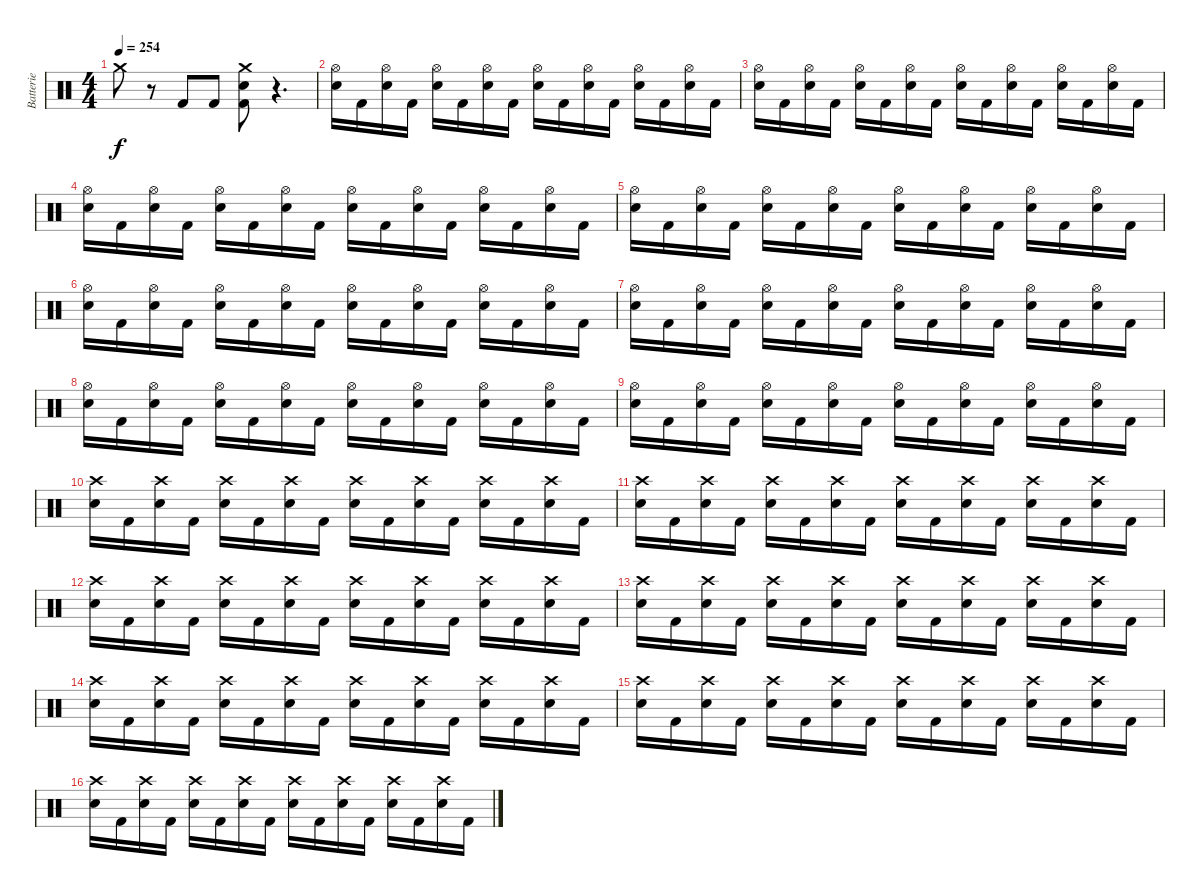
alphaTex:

\track ("Batterie" "Batterie") {instrument percussion}
\staff {score}
\articulation defaults
\ts (4 4)
\tempo 254
\clef neutral
\ks c "Crash medium (hit)".8{dy f}
r.8 "Kick (hit) 2".8 "Kick (hit) 2".8 ("Crash medium (hit)" "Electric Snare (hit)" "Kick (hit) 2").8 r.4{d} |
\section ("" "")
("Hi-Hat (open)" "Electric Snare (hit)").16 "Kick (hit) 2".16 ("Hi-Hat (open)" "Electric Snare (hit)").16 "Kick (hit) 2".16 ("Hi-Hat (open)" "Electric Snare (hit)").16 "Kick (hit) 2".16 ("Hi-Hat (open)" "Electric Snare (hit)").16 "Kick (hit) 2".16 ("Hi-Hat (open)" "Electric Snare (hit)").16 "Kick (hit) 2".16 ("Hi-Hat (open)" "Electric Snare (hit)").16 "Kick (hit) 2".16 ("Hi-Hat (open)" "Electric Snare (hit)").16 "Kick (hit) 2".16 ("Hi-Hat (open)" "Electric Snare (hit)").16 "Kick (hit) 2".16 |
("Hi-Hat (open)" "Electric Snare (hit)").16 "Kick (hit) 2".16 ("Hi-Hat (open)" "Electric Snare (hit)").16 "Kick (hit) 2".16 ("Hi-Hat (open)" "Electric Snare (hit)").16 "Kick (hit) 2".16 ("Hi-Hat (open)" "Electric Snare (hit)").16 "Kick (hit) 2".16 ("Hi-Hat (open)" "Electric Snare (hit)").16 "Kick (hit) 2".16 ("Hi-Hat (open)" "Electric Snare (hit)").16 "Kick (hit) 2".16 ("Hi-Hat (open)" "Electric Snare (hit)").16 "Kick (hit) 2".16 ("Hi-Hat (open)" "Electric Snare (hit)").16 "Kick (hit) 2".16 |
("Hi-Hat (open)" "Electric Snare (hit)").16 "Kick (hit) 2".16 ("Hi-Hat (open)" "Electric Snare (hit)").16 "Kick (hit) 2".16 ("Hi-Hat (open)" "Electric Snare (hit)").16 "Kick (hit) 2".16 ("Hi-Hat (open)" "Electric Snare (hit)").16 "Kick (hit) 2".16 ("Hi-Hat (open)" "Electric Snare (hit)").16 "Kick (hit) 2".16 ("Hi-Hat (open)" "Electric Snare (hit)").16 "Kick (hit) 2".16 ("Hi-Hat (open)" "Electric Snare (hit)").16 "Kick (hit) 2".16 ("Hi-Hat (open)" "Electric Snare (hit)").16 "Kick (hit) 2".16 |
("Hi-Hat (open)" "Electric Snare (hit)").16 "Kick (hit) 2".16 ("Hi-Hat (open)" "Electric Snare (hit)").16 "Kick (hit) 2".16 ("Hi-Hat (open)" "Electric Snare (hit)").16 "Kick (hit) 2".16 ("Hi-Hat (open)" "Electric Snare (hit)").16 "Kick (hit) 2".16 ("Hi-Hat (open)" "Electric Snare (hit)").16 "Kick (hit) 2".16 ("Hi-Hat (open)" "Electric Snare (hit)").16 "Kick (hit) 2".16 ("Hi-Hat (open)" "Electric Snare (hit)").16 "Kick (hit) 2".16 ("Hi-Hat (open)" "Electric Snare (hit)").16 "Kick (hit) 2".16 |
("Hi-Hat (open)" "Electric Snare (hit)").16 "Kick (hit) 2".16 ("Hi-Hat (open)" "Electric Snare (hit)").16 "Kick (hit) 2".16 ("Hi-Hat (open)" "Electric Snare (hit)").16 "Kick (hit) 2".16 ("Hi-Hat (open)" "Electric Snare (hit)").16 "Kick (hit) 2".16 ("Hi-Hat (open)" "Electric Snare (hit)").16 "Kick (hit) 2".16 ("Hi-Hat (open)" "Electric Snare (hit)").16 "Kick (hit) 2".16 ("Hi-Hat (open)" "Electric Snare (hit)").16 "Kick (hit) 2".16 ("Hi-Hat (open)" "Electric Snare (hit)").16 "Kick (hit) 2".16 |
("Hi-Hat (open)" "Electric Snare (hit)").16 "Kick (hit) 2".16 ("Hi-Hat (open)" "Electric Snare (hit)").16 "Kick (hit) 2".16 ("Hi-Hat (open)" "Electric Snare (hit)").16 "Kick (hit) 2".16 ("Hi-Hat (open)" "Electric Snare (hit)").16 "Kick (hit) 2".16 ("Hi-Hat (open)" "Electric Snare (hit)").16 "Kick (hit) 2".16 ("Hi-Hat (open)" "Electric Snare (hit)").16 "Kick (hit) 2".16 ("Hi-Hat (open)" "Electric Snare (hit)").16 "Kick (hit) 2".16 ("Hi-Hat (open)" "Electric Snare (hit)").16 "Kick (hit) 2".16 |
("Hi-Hat (open)" "Electric Snare (hit)").16 "Kick (hit) 2".16 ("Hi-Hat (open)" "Electric Snare (hit)").16 "Kick (hit) 2".16 ("Hi-Hat (open)" "Electric Snare (hit)").16 "Kick (hit) 2".16 ("Hi-Hat (open)" "Electric Snare (hit)").16 "Kick (hit) 2".16 ("Hi-Hat (open)" "Electric Snare (hit)").16 "Kick (hit) 2".16 ("Hi-Hat (open)" "Electric Snare (hit)").16 "Kick (hit) 2".16 ("Hi-Hat (open)" "Electric Snare (hit)").16 "Kick (hit) 2".16 ("Hi-Hat (open)" "Electric Snare (hit)").16 "Kick (hit) 2".16 |
("Hi-Hat (open)" "Electric Snare (hit)").16 "Kick (hit) 2".16 ("Hi-Hat (open)" "Electric Snare (hit)").16 "Kick (hit) 2".16 ("Hi-Hat (open)" "Electric Snare (hit)").16 "Kick (hit) 2".16 ("Hi-Hat (open)" "Electric Snare (hit)").16 "Kick (hit) 2".16 ("Hi-Hat (open)" "Electric Snare (hit)").16 "Kick (hit) 2".16 ("Hi-Hat (open)" "Electric Snare (hit)").16 "Kick (hit) 2".16 ("Hi-Hat (open)" "Electric Snare (hit)").16 "Kick (hit) 2".16 ("Hi-Hat (open)" "Electric Snare (hit)").16 "Kick (hit) 2".16 |
("Crash high (hit)" "Electric Snare (hit)").16 "Kick (hit) 2".16 ("Crash high (hit)" "Electric Snare (hit)").16 "Kick (hit) 2".16 ("Crash high (hit)" "Electric Snare (hit)").16 "Kick (hit) 2".16 ("Crash high (hit)" "Electric Snare (hit)").16 "Kick (hit) 2".16 ("Crash high (hit)" "Electric Snare (hit)").16 "Kick (hit) 2".16 ("Crash high (hit)" "Electric Snare (hit)").16 "Kick (hit) 2".16 ("Crash high (hit)" "Electric Snare (hit)").16 "Kick (hit) 2".16 ("Crash high (hit)" "Electric Snare (hit)").16 "Kick (hit) 2".16 |
("Crash high (hit)" "Electric Snare (hit)").16 "Kick (hit) 2".16 ("Crash high (hit)" "Electric Snare (hit)").16 "Kick (hit) 2".16 ("Crash high (hit)" "Electric Snare (hit)").16 "Kick (hit) 2".16 ("Crash high (hit)" "Electric Snare (hit)").16 "Kick (hit) 2".16 ("Crash high (hit)" "Electric Snare (hit)").16 "Kick (hit) 2".16 ("Crash high (hit)" "Electric Snare (hit)").16 "Kick (hit) 2".16 ("Crash high (hit)" "Electric Snare (hit)").16 "Kick (hit) 2".16 ("Crash high (hit)" "Electric Snare (hit)").16 "Kick (hit) 2".16 |
("Crash high (hit)" "Electric Snare (hit)").16 "Kick (hit) 2".16 ("Crash high (hit)" "Electric Snare (hit)").16 "Kick (hit) 2".16 ("Crash high (hit)" "Electric Snare (hit)").16 "Kick (hit) 2".16 ("Crash high (hit)" "Electric Snare (hit)").16 "Kick (hit) 2".16 ("Crash high (hit)" "Electric Snare (hit)").16 "Kick (hit) 2".16 ("Crash high (hit)" "Electric Snare (hit)").16 "Kick (hit) 2".16 ("Crash high (hit)" "Electric Snare (hit)").16 "Kick (hit) 2".16 ("Crash high (hit)" "Electric Snare (hit)").16 "Kick (hit) 2".16 |
("Crash high (hit)" "Electric Snare (hit)").16 "Kick (hit) 2".16 ("Crash high (hit)" "Electric Snare (hit)").16 "Kick (hit) 2".16 ("Crash high (hit)" "Electric Snare (hit)").16 "Kick (hit) 2".16 ("Crash high (hit)" "Electric Snare (hit)").16 "Kick (hit) 2".16 ("Crash high (hit)" "Electric Snare (hit)").16 "Kick (hit) 2".16 ("Crash high (hit)" "Electric Snare (hit)").16 "Kick (hit) 2".16 ("Crash high (hit)" "Electric Snare (hit)").16 "Kick (hit) 2".16 ("Crash high (hit)" "Electric Snare (hit)").16 "Kick (hit) 2".16 |
("Crash high (hit)" "Electric Snare (hit)").16 "Kick (hit) 2".16 ("Crash high (hit)" "Electric Snare (hit)").16 "Kick (hit) 2".16 ("Crash high (hit)" "Electric Snare (hit)").16 "Kick (hit) 2".16 ("Crash high (hit)" "Electric Snare (hit)").16 "Kick (hit) 2".16 ("Crash high (hit)" "Electric Snare (hit)").16 "Kick (hit) 2".16 ("Crash high (hit)" "Electric Snare (hit)").16 "Kick (hit) 2".16 ("Crash high (hit)" "Electric Snare (hit)").16 "Kick (hit) 2".16 ("Crash high (hit)" "Electric Snare (hit)").16 "Kick (hit) 2".16 |
("Crash high (hit)" "Electric Snare (hit)").16 "Kick (hit) 2".16 ("Crash high (hit)" "Electric Snare (hit)").16 "Kick (hit) 2".16 ("Crash high (hit)" "Electric Snare (hit)").16 "Kick (hit) 2".16 ("Crash high (hit)" "Electric Snare (hit)").16 "Kick (hit) 2".16 ("Crash high (hit)" "Electric Snare (hit)").16 "Kick (hit) 2".16 ("Crash high (hit)" "Electric Snare (hit)").16 "Kick (hit) 2".16 ("Crash high (hit)" "Electric Snare (hit)").16 "Kick (hit) 2".16 ("Crash high (hit)" "Electric Snare (hit)").16 "Kick (hit) 2".16 |
("Crash high (hit)" "Electric Snare (hit)").16 "Kick (hit) 2".16 ("Crash high (hit)" "Electric Snare (hit)").16 "Kick (hit) 2".16 ("Crash high (hit)" "Electric Snare (hit)").16 "Kick (hit) 2".16 ("Crash high (hit)" "Electric Snare (hit)").16 "Kick (hit) 2".16 ("Crash high (hit)" "Electric Snare (hit)").16 "Kick (hit) 2".16 ("Crash high (hit)" "Electric Snare (hit)").16 "Kick (hit) 2".16 ("Crash high (hit)" "Electric Snare (hit)").16 "Kick (hit) 2".16 ("Crash high (hit)" "Electric Snare (hit)").16 "Kick (hit) 2".16
